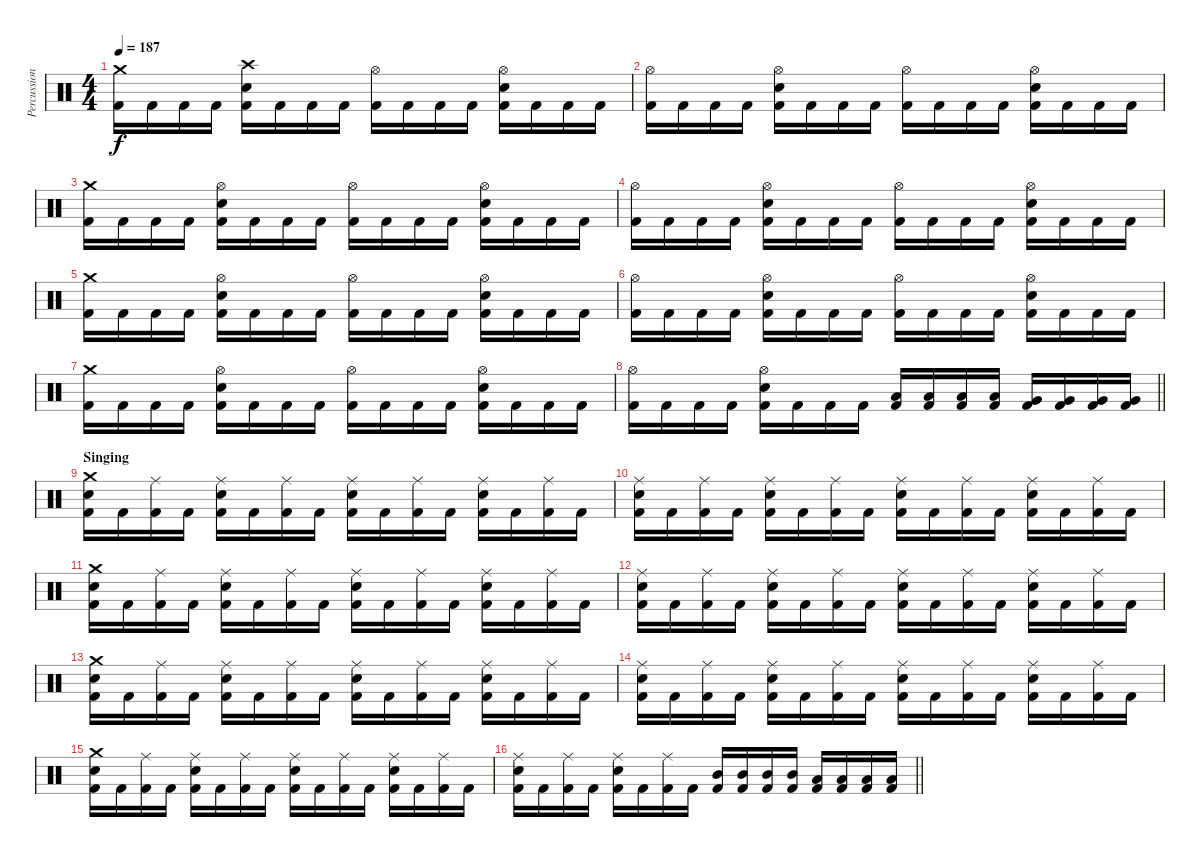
\track ("Percussion" "Percussion") {instrument percussion}
\staff {score}
\articulation defaults
\ts (4 4)
\section ("" "")
\tempo 187
\clef neutral
\ks c
("Kick (hit) 2" "Crash medium (hit)").16{dy f} "Kick (hit) 2".16 "Kick (hit) 2".16 "Kick (hit) 2".16 ("Kick (hit) 2" "Snare (hit) 2" "Crash high (hit)").16 "Kick (hit) 2".16 "Kick (hit) 2".16 "Kick (hit) 2".16 ("Kick (hit) 2" "Hi-Hat (open)").16 "Kick (hit) 2".16 "Kick (hit) 2".16 "Kick (hit) 2".16 ("Kick (hit) 2" "Snare (hit) 2" "Hi-Hat (open)").16 "Kick (hit) 2".16 "Kick (hit) 2".16 "Kick (hit) 2".16 |
("Kick (hit) 2" "Hi-Hat (open)").16 "Kick (hit) 2".16 "Kick (hit) 2".16 "Kick (hit) 2".16 ("Kick (hit) 2" "Snare (hit) 2" "Hi-Hat (open)").16 "Kick (hit) 2".16 "Kick (hit) 2".16 "Kick (hit) 2".16 ("Kick (hit) 2" "Hi-Hat (open)").16 "Kick (hit) 2".16 "Kick (hit) 2".16 "Kick (hit) 2".16 ("Kick (hit) 2" "Snare (hit) 2" "Hi-Hat (open)").16 "Kick (hit) 2".16 "Kick (hit) 2".16 "Kick (hit) 2".16 |
("Kick (hit) 2" "Crash medium (hit)").16 "Kick (hit) 2".16 "Kick (hit) 2".16 "Kick (hit) 2".16 ("Kick (hit) 2" "Snare (hit) 2" "Hi-Hat (open)").16 "Kick (hit) 2".16 "Kick (hit) 2".16 "Kick (hit) 2".16 ("Kick (hit) 2" "Hi-Hat (open)").16 "Kick (hit) 2".16 "Kick (hit) 2".16 "Kick (hit) 2".16 ("Kick (hit) 2" "Snare (hit) 2" "Hi-Hat (open)").16 "Kick (hit) 2".16 "Kick (hit) 2".16 "Kick (hit) 2".16 |
("Kick (hit) 2" "Hi-Hat (open)").16 "Kick (hit) 2".16 "Kick (hit) 2".16 "Kick (hit) 2".16 ("Kick (hit) 2" "Snare (hit) 2" "Hi-Hat (open)").16 "Kick (hit) 2".16 "Kick (hit) 2".16 "Kick (hit) 2".16 ("Kick (hit) 2" "Hi-Hat (open)").16 "Kick (hit) 2".16 "Kick (hit) 2".16 "Kick (hit) 2".16 ("Kick (hit) 2" "Snare (hit) 2" "Hi-Hat (open)").16 "Kick (hit) 2".16 "Kick (hit) 2".16 "Kick (hit) 2".16 |
("Kick (hit) 2" "Crash medium (hit)").16 "Kick (hit) 2".16 "Kick (hit) 2".16 "Kick (hit) 2".16 ("Kick (hit) 2" "Snare (hit) 2" "Hi-Hat (open)").16 "Kick (hit) 2".16 "Kick (hit) 2".16 "Kick (hit) 2".16 ("Kick (hit) 2" "Hi-Hat (open)").16 "Kick (hit) 2".16 "Kick (hit) 2".16 "Kick (hit) 2".16 ("Kick (hit) 2" "Snare (hit) 2" "Hi-Hat (open)").16 "Kick (hit) 2".16 "Kick (hit) 2".16 "Kick (hit) 2".16 |
("Kick (hit) 2" "Hi-Hat (open)").16 "Kick (hit) 2".16 "Kick (hit) 2".16 "Kick (hit) 2".16 ("Kick (hit) 2" "Snare (hit) 2" "Hi-Hat (open)").16 "Kick (hit) 2".16 "Kick (hit) 2".16 "Kick (hit) 2".16 ("Kick (hit) 2" "Hi-Hat (open)").16 "Kick (hit) 2".16 "Kick (hit) 2".16 "Kick (hit) 2".16 ("Kick (hit) 2" "Snare (hit) 2" "Hi-Hat (open)").16 "Kick (hit) 2".16 "Kick (hit) 2".16 "Kick (hit) 2".16 |
("Kick (hit) 2" "Crash medium (hit)").16 "Kick (hit) 2".16 "Kick (hit) 2".16 "Kick (hit) 2".16 ("Kick (hit) 2" "Snare (hit) 2" "Hi-Hat (open)").16 "Kick (hit) 2".16 "Kick (hit) 2".16 "Kick (hit) 2".16 ("Kick (hit) 2" "Hi-Hat (open)").16 "Kick (hit) 2".16 "Kick (hit) 2".16 "Kick (hit) 2".16 ("Kick (hit) 2" "Snare (hit) 2" "Hi-Hat (open)").16 "Kick (hit) 2".16 "Kick (hit) 2".16 "Kick (hit) 2".16 |
\barLineRight lightlight
("Kick (hit) 2" "Hi-Hat (open)").16 "Kick (hit) 2".16 "Kick (hit) 2".16 "Kick (hit) 2".16 ("Kick (hit) 2" "Snare (hit) 2" "Hi-Hat (open)").16 "Kick (hit) 2".16 "Kick (hit) 2".16 "Kick (hit) 2".16 ("Kick (hit) 2" "Low Tom (hit)").16 ("Kick (hit) 2" "Low Tom (hit)").16 ("Kick (hit) 2" "Low Tom (hit)").16 ("Kick (hit) 2" "Low Tom (hit)").16 ("Kick (hit) 2" "Very Low Tom (hit)").16 ("Kick (hit) 2" "Very Low Tom (hit)").16 ("Kick (hit) 2" "Very Low Tom (hit)").16 ("Kick (hit) 2" "Very Low Tom (hit)").16 |
\section ("" "Singing")
("Kick (hit) 2" "Snare (hit) 2" "Crash medium (hit)").16 "Kick (hit) 2".16 ("Kick (hit) 2" "Ride (middle)").16 "Kick (hit) 2".16 ("Kick (hit) 2" "Snare (hit) 2" "Ride (middle)").16 "Kick (hit) 2".16 ("Kick (hit) 2" "Ride (middle)").16 "Kick (hit) 2".16 ("Kick (hit) 2" "Snare (hit) 2" "Ride (middle)").16 "Kick (hit) 2".16 ("Kick (hit) 2" "Ride (middle)").16 "Kick (hit) 2".16 ("Kick (hit) 2" "Snare (hit) 2" "Ride (middle)").16 "Kick (hit) 2".16 ("Kick (hit) 2" "Ride (middle)").16 "Kick (hit) 2".16 |
("Kick (hit) 2" "Snare (hit) 2" "Ride (middle)").16 "Kick (hit) 2".16 ("Kick (hit) 2" "Ride (middle)").16 "Kick (hit) 2".16 ("Kick (hit) 2" "Snare (hit) 2" "Ride (middle)").16 "Kick (hit) 2".16 ("Kick (hit) 2" "Ride (middle)").16 "Kick (hit) 2".16 ("Kick (hit) 2" "Snare (hit) 2" "Ride (middle)").16 "Kick (hit) 2".16 ("Kick (hit) 2" "Ride (middle)").16 "Kick (hit) 2".16 ("Kick (hit) 2" "Snare (hit) 2" "Ride (middle)").16 "Kick (hit) 2".16 ("Kick (hit) 2" "Ride (middle)").16 "Kick (hit) 2".16 |
("Kick (hit) 2" "Snare (hit) 2" "Crash medium (hit)").16 "Kick (hit) 2".16 ("Kick (hit) 2" "Ride (middle)").16 "Kick (hit) 2".16 ("Kick (hit) 2" "Snare (hit) 2" "Ride (middle)").16 "Kick (hit) 2".16 ("Kick (hit) 2" "Ride (middle)").16 "Kick (hit) 2".16 ("Kick (hit) 2" "Snare (hit) 2" "Ride (middle)").16 "Kick (hit) 2".16 ("Kick (hit) 2" "Ride (middle)").16 "Kick (hit) 2".16 ("Kick (hit) 2" "Snare (hit) 2" "Ride (middle)").16 "Kick (hit) 2".16 ("Kick (hit) 2" "Ride (middle)").16 "Kick (hit) 2".16 |
("Kick (hit) 2" "Snare (hit) 2" "Ride (middle)").16 "Kick (hit) 2".16 ("Kick (hit) 2" "Ride (middle)").16 "Kick (hit) 2".16 ("Kick (hit) 2" "Snare (hit) 2" "Ride (middle)").16 "Kick (hit) 2".16 ("Kick (hit) 2" "Ride (middle)").16 "Kick (hit) 2".16 ("Kick (hit) 2" "Snare (hit) 2" "Ride (middle)").16 "Kick (hit) 2".16 ("Kick (hit) 2" "Ride (middle)").16 "Kick (hit) 2".16 ("Kick (hit) 2" "Snare (hit) 2" "Ride (middle)").16 "Kick (hit) 2".16 ("Kick (hit) 2" "Ride (middle)").16 "Kick (hit) 2".16 |
("Kick (hit) 2" "Snare (hit) 2" "Crash medium (hit)").16 "Kick (hit) 2".16 ("Kick (hit) 2" "Ride (middle)").16 "Kick (hit) 2".16 ("Kick (hit) 2" "Snare (hit) 2" "Ride (middle)").16 "Kick (hit) 2".16 ("Kick (hit) 2" "Ride (middle)").16 "Kick (hit) 2".16 ("Kick (hit) 2" "Snare (hit) 2" "Ride (middle)").16 "Kick (hit) 2".16 ("Kick (hit) 2" "Ride (middle)").16 "Kick (hit) 2".16 ("Kick (hit) 2" "Snare (hit) 2" "Ride (middle)").16 "Kick (hit) 2".16 ("Kick (hit) 2" "Ride (middle)").16 "Kick (hit) 2".16 |
("Kick (hit) 2" "Snare (hit) 2" "Ride (middle)").16 "Kick (hit) 2".16 ("Kick (hit) 2" "Ride (middle)").16 "Kick (hit) 2".16 ("Kick (hit) 2" "Snare (hit) 2" "Ride (middle)").16 "Kick (hit) 2".16 ("Kick (hit) 2" "Ride (middle)").16 "Kick (hit) 2".16 ("Kick (hit) 2" "Snare (hit) 2" "Ride (middle)").16 "Kick (hit) 2".16 ("Kick (hit) 2" "Ride (middle)").16 "Kick (hit) 2".16 ("Kick (hit) 2" "Snare (hit) 2" "Ride (middle)").16 "Kick (hit) 2".16 ("Kick (hit) 2" "Ride (middle)").16 "Kick (hit) 2".16 |
("Kick (hit) 2" "Snare (hit) 2" "Crash medium (hit)").16 "Kick (hit) 2".16 ("Kick (hit) 2" "Ride (middle)").16 "Kick (hit) 2".16 ("Kick (hit) 2" "Snare (hit) 2" "Ride (middle)").16 "Kick (hit) 2".16 ("Kick (hit) 2" "Ride (middle)").16 "Kick (hit) 2".16 ("Kick (hit) 2" "Snare (hit) 2" "Ride (middle)").16 "Kick (hit) 2".16 ("Kick (hit) 2" "Ride (middle)").16 "Kick (hit) 2".16 ("Kick (hit) 2" "Snare (hit) 2" "Ride (middle)").16 "Kick (hit) 2".16 ("Kick (hit) 2" "Ride (middle)").16 "Kick (hit) 2".16 |
\barLineRight lightlight
("Kick (hit) 2" "Snare (hit) 2" "Ride (middle)").16 "Kick (hit) 2".16 ("Kick (hit) 2" "Ride (middle)").16 "Kick (hit) 2".16 ("Kick (hit) 2" "Snare (hit) 2" "Ride (middle)").16 "Kick (hit) 2".16 ("Kick (hit) 2" "Ride (middle)").16 "Kick (hit) 2".16 ("Kick (hit) 2" "Mid Tom (hit)").16 ("Kick (hit) 2" "Mid Tom (hit)").16 ("Kick (hit) 2" "Mid Tom (hit)").16 ("Kick (hit) 2" "Mid Tom (hit)").16 ("Kick (hit) 2" "Low Tom (hit)").16 ("Kick (hit) 2" "Low Tom (hit)").16 ("Kick (hit) 2" "Low Tom (hit)").16 ("Kick (hit) 2" "Low Tom (hit)").16
